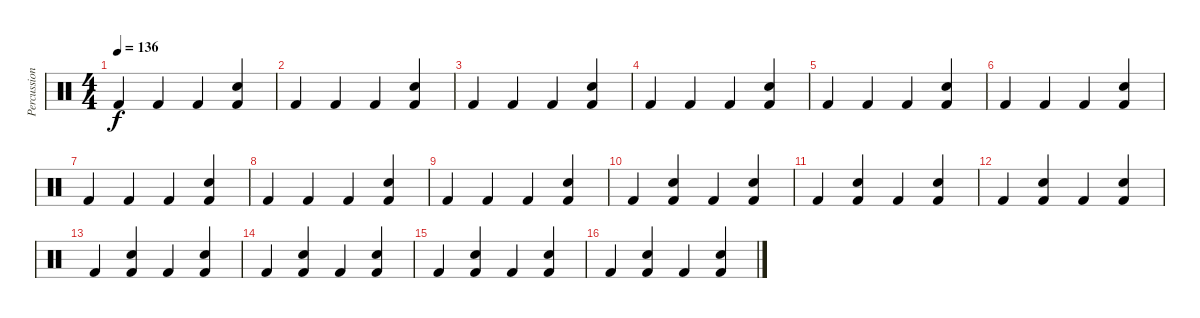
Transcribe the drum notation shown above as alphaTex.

\track ("Percussion" "Percussion") {instrument percussion}
\staff {score}
\articulation defaults
\ts (4 4)
\tempo 136
\clef neutral
\ks c "Kick (hit) 2".4{dy f} "Kick (hit) 2".4 "Kick (hit) 2".4
("Kick (hit) 2" "Snare (hit) 2").4 |
"Kick (hit) 2".4 "Kick (hit) 2".4 "Kick (hit) 2".4 ("Kick (hit) 2" "Snare (hit) 2").4 |
"Kick (hit) 2".4 "Kick (hit) 2".4 "Kick (hit) 2".4 ("Kick (hit) 2" "Snare (hit) 2").4 |
"Kick (hit) 2".4 "Kick (hit) 2".4 "Kick (hit) 2".4 ("Kick (hit) 2" "Snare (hit) 2").4 |
"Kick (hit) 2".4 "Kick (hit) 2".4 "Kick (hit) 2".4 ("Kick (hit) 2" "Snare (hit) 2").4 |
"Kick (hit) 2".4 "Kick (hit) 2".4 "Kick (hit) 2".4 ("Kick (hit) 2" "Snare (hit) 2").4 |
"Kick (hit) 2".4 "Kick (hit) 2".4 "Kick (hit) 2".4 ("Kick (hit) 2" "Snare (hit) 2").4 |
"Kick (hit) 2".4 "Kick (hit) 2".4 "Kick (hit) 2".4 ("Kick (hit) 2" "Snare (hit) 2").4 |
"Kick (hit) 2".4 "Kick (hit) 2".4 "Kick (hit) 2".4 ("Kick (hit) 2" "Snare (hit) 2").4 |
"Kick (hit) 2".4 ("Kick (hit) 2" "Snare (hit) 2").4 "Kick (hit) 2".4 ("Kick (hit) 2" "Snare (hit) 2").4 |
"Kick (hit) 2".4 ("Kick (hit) 2" "Snare (hit) 2").4 "Kick (hit) 2".4 ("Kick (hit) 2" "Snare (hit) 2").4 |
"Kick (hit) 2".4 ("Kick (hit) 2" "Snare (hit) 2").4 "Kick (hit) 2".4 ("Kick (hit) 2" "Snare (hit) 2").4 |
"Kick (hit) 2".4 ("Kick (hit) 2" "Snare (hit) 2").4 "Kick (hit) 2".4 ("Kick (hit) 2" "Snare (hit) 2").4 |
"Kick (hit) 2".4 ("Kick (hit) 2" "Snare (hit) 2").4 "Kick (hit) 2".4 ("Kick (hit) 2" "Snare (hit) 2").4 |
"Kick (hit) 2".4 ("Kick (hit) 2" "Snare (hit) 2").4 "Kick (hit) 2".4 ("Kick (hit) 2" "Snare (hit) 2").4 |
"Kick (hit) 2".4 ("Kick (hit) 2" "Snare (hit) 2").4 "Kick (hit) 2".4 ("Kick (hit) 2" "Snare (hit) 2").4
